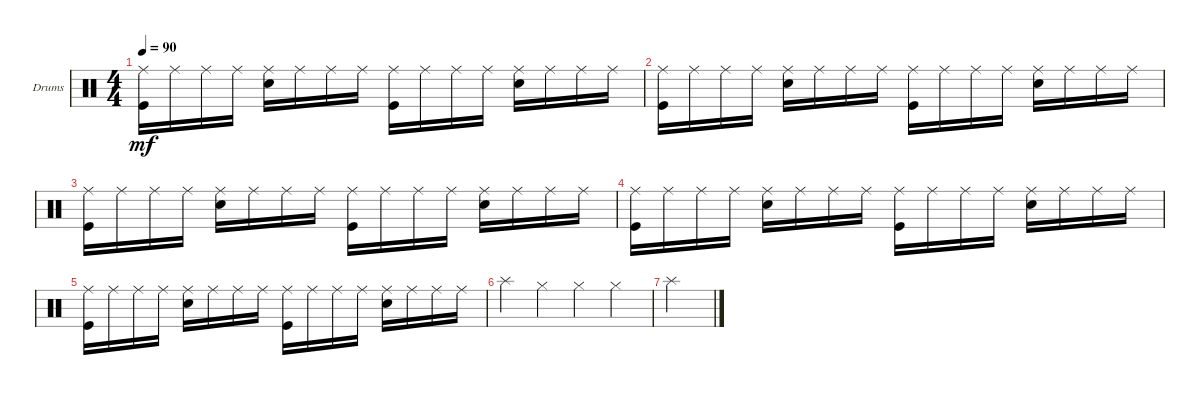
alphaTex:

\defaultSystemsLayout 4
\bracketExtendMode groupsimilarinstruments
\firstSystemTrackNameOrientation horizontal
\otherSystemsTrackNameOrientation horizontal
\track ("Drumkit" "Drums") {instrument percussion}
\staff {score}
\articulation defaults
\ts (4 4)
\tempo 90
\clef neutral
\ks c
("Ride (middle)" "Kick (hit)").16{dy mf} "Ride (middle)".16 "Ride (middle)".16 "Ride (middle)".16 ("Ride (middle)" "Snare (hit) 2").16 "Ride (middle)".16 "Ride (middle)".16 "Ride (middle)".16 ("Ride (middle)" "Kick (hit)").16 "Ride (middle)".16 "Ride (middle)".16 "Ride (middle)".16 ("Ride (middle)" "Snare (hit) 2").16 "Ride (middle)".16 "Ride (middle)".16 "Ride (middle)".16 |
("Ride (middle)" "Kick (hit)").16 "Ride (middle)".16 "Ride (middle)".16 "Ride (middle)".16 ("Ride (middle)" "Snare (hit) 2").16 "Ride (middle)".16 "Ride (middle)".16 "Ride (middle)".16 ("Ride (middle)" "Kick (hit)").16 "Ride (middle)".16 "Ride (middle)".16 "Ride (middle)".16 ("Ride (middle)" "Snare (hit) 2").16 "Ride (middle)".16 "Ride (middle)".16 "Ride (middle)".16 |
("Ride (middle)" "Kick (hit)").16 "Ride (middle)".16 "Ride (middle)".16 "Ride (middle)".16 ("Ride (middle)" "Snare (hit) 2").16 "Ride (middle)".16 "Ride (middle)".16 "Ride (middle)".16 ("Ride (middle)" "Kick (hit)").16 "Ride (middle)".16 "Ride (middle)".16 "Ride (middle)".16 ("Ride (middle)" "Snare (hit) 2").16 "Ride (middle)".16 "Ride (middle)".16 "Ride (middle)".16 |
("Ride (middle)" "Kick (hit)").16 "Ride (middle)".16 "Ride (middle)".16 "Ride (middle)".16 ("Ride (middle)" "Snare (hit) 2").16 "Ride (middle)".16 "Ride (middle)".16 "Ride (middle)".16 ("Ride (middle)" "Kick (hit)").16 "Ride (middle)".16 "Ride (middle)".16 "Ride (middle)".16 ("Ride (middle)" "Snare (hit) 2").16 "Ride (middle)".16 "Ride (middle)".16 "Ride (middle)".16 |
("Ride (middle)" "Kick (hit)").16 "Ride (middle)".16 "Ride (middle)".16 "Ride (middle)".16 ("Ride (middle)" "Snare (hit) 2").16 "Ride (middle)".16 "Ride (middle)".16 "Ride (middle)".16 ("Ride (middle)" "Kick (hit)").16 "Ride (middle)".16 "Ride (middle)".16 "Ride (middle)".16 ("Ride (middle)" "Snare (hit) 2").16 "Ride (middle)".16 "Ride (middle)".16 "Ride (middle)".16 |
"Splash (hit)".4 "Hi-Hat (closed)".4 "Hi-Hat (closed)".4 "Hi-Hat (closed)".4 |
"Splash (hit)".2
